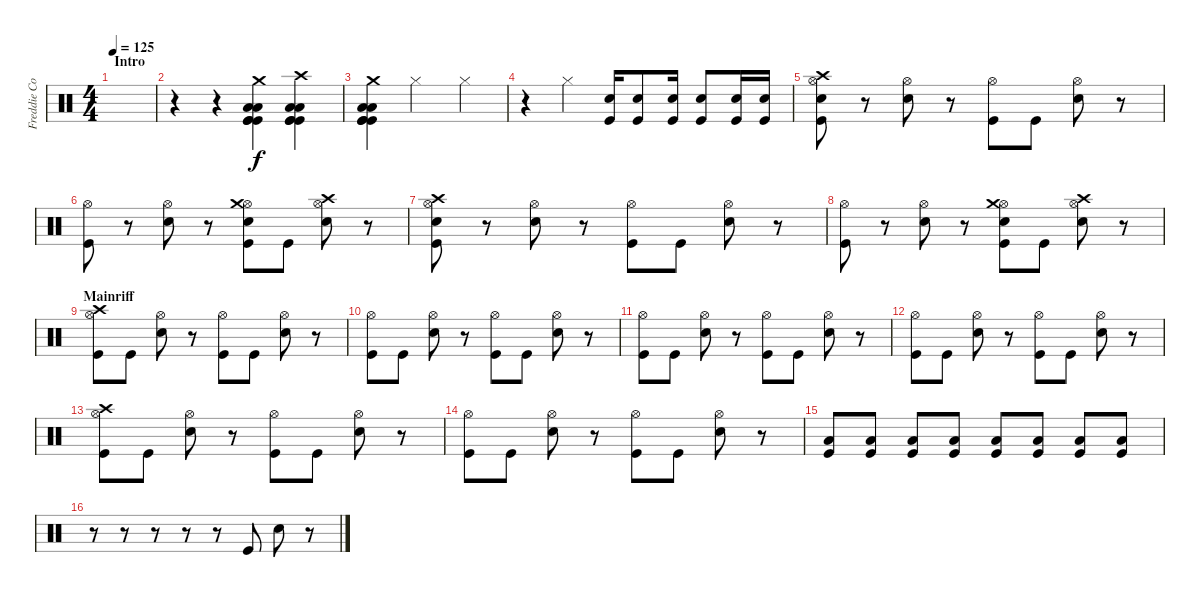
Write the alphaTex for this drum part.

\track ("Freddie Coury - Drums" "Freddie Co") {instrument percussion}
\staff {score}
\articulation defaults
\ts (4 4)
\section ("" "Intro")
\tempo 125
\clef neutral
\ks c
|
r.4 r.4 ("Kick (hit)" "Low Floor Tom (hit)" "Low Tom (hit)" "Kick (hit)" "Kick (hit)" "Crash medium (hit)").4 ("Kick (hit)" "Low Floor Tom (hit)" "Low Tom (hit)" "Kick (hit)" "Kick (hit)" "Crash high (hit)").4 |
("Kick (hit)" "Low Floor Tom (hit)" "Low Tom (hit)" "Kick (hit)" "Kick (hit)" "Crash medium (hit)").4 "Hi-Hat (closed)".2 "Hi-Hat (closed)".4 |
r.4 "Hi-Hat (closed)".4 ("Kick (hit)" "Snare (hit) 2").16 ("Kick (hit)" "Snare (hit) 2").8 ("Kick (hit)" "Snare (hit) 2").16 ("Kick (hit)" "Snare (hit) 2").8 ("Kick (hit)" "Snare (hit) 2").16 ("Kick (hit)" "Snare (hit) 2").16 |
("Hi-Hat (open)" "Crash high (hit)" "Snare (hit) 2" "Kick (hit)").8 r.8 ("Hi-Hat (open)" "Snare (hit) 2").8 r.8 ("Hi-Hat (open)" "Kick (hit)").8 "Kick (hit)".8 ("Hi-Hat (open)" "Snare (hit) 2").8 r.8 |
("Hi-Hat (open)" "Kick (hit)").8 r.8 ("Hi-Hat (open)" "Snare (hit) 2").8 r.8 ("Hi-Hat (open)" "Crash medium (hit)" "Snare (hit) 2" "Kick (hit)").8 "Kick (hit)".8 ("Hi-Hat (open)" "Crash high (hit)" "Snare (hit) 2").8 r.8 |
("Hi-Hat (open)" "Crash high (hit)" "Snare (hit) 2" "Kick (hit)").8 r.8 ("Hi-Hat (open)" "Snare (hit) 2").8 r.8 ("Hi-Hat (open)" "Kick (hit)").8 "Kick (hit)".8 ("Hi-Hat (open)" "Snare (hit) 2").8 r.8 |
("Hi-Hat (open)" "Kick (hit)").8 r.8 ("Hi-Hat (open)" "Snare (hit) 2").8 r.8 ("Hi-Hat (open)" "Crash medium (hit)" "Snare (hit) 2" "Kick (hit)").8 "Kick (hit)".8 ("Hi-Hat (open)" "Crash high (hit)" "Snare (hit) 2").8 r.8 |
\section ("" "Mainriff")
("Hi-Hat (open)" "Crash high (hit)" "Kick (hit)").8 "Kick (hit)".8 ("Hi-Hat (open)" "Snare (hit) 2").8 r.8 ("Hi-Hat (open)" "Kick (hit)").8 "Kick (hit)".8 ("Hi-Hat (open)" "Snare (hit) 2").8 r.8 |
("Hi-Hat (open)" "Kick (hit)").8 "Kick (hit)".8 ("Hi-Hat (open)" "Snare (hit) 2").8 r.8 ("Hi-Hat (open)" "Kick (hit)").8 "Kick (hit)".8 ("Hi-Hat (open)" "Snare (hit) 2").8 r.8 |
("Hi-Hat (open)" "Kick (hit)").8 "Kick (hit)".8 ("Hi-Hat (open)" "Snare (hit) 2").8 r.8 ("Hi-Hat (open)" "Kick (hit)").8 "Kick (hit)".8 ("Hi-Hat (open)" "Snare (hit) 2").8 r.8 |
("Hi-Hat (open)" "Kick (hit)").8 "Kick (hit)".8 ("Hi-Hat (open)" "Snare (hit) 2").8 r.8 ("Hi-Hat (open)" "Kick (hit)").8 "Kick (hit)".8 ("Hi-Hat (open)" "Snare (hit) 2").8 r.8 |
("Hi-Hat (open)" "Crash high (hit)" "Kick (hit)").8 "Kick (hit)".8 ("Hi-Hat (open)" "Snare (hit) 2").8 r.8 ("Hi-Hat (open)" "Kick (hit)").8 "Kick (hit)".8 ("Hi-Hat (open)" "Snare (hit) 2").8 r.8 |
("Hi-Hat (open)" "Kick (hit)").8 "Kick (hit)".8 ("Hi-Hat (open)" "Snare (hit) 2").8 r.8 ("Hi-Hat (open)" "Kick (hit)").8 "Kick (hit)".8 ("Hi-Hat (open)" "Snare (hit) 2").8 r.8 |
("Kick (hit)" "Low Floor Tom (hit)").8 ("Kick (hit)" "Low Floor Tom (hit)").8 ("Kick (hit)" "Low Floor Tom (hit)").8 ("Kick (hit)" "Low Floor Tom (hit)").8 ("Kick (hit)" "Low Floor Tom (hit)").8 ("Kick (hit)" "Low Floor Tom (hit)").8 ("Kick (hit)" "Low Floor Tom (hit)").8 ("Kick (hit)" "Low Floor Tom (hit)").8 |
r.8 r.8 r.8 r.8 r.8 "Kick (hit)".8 "Snare (hit) 2".8 r.8
